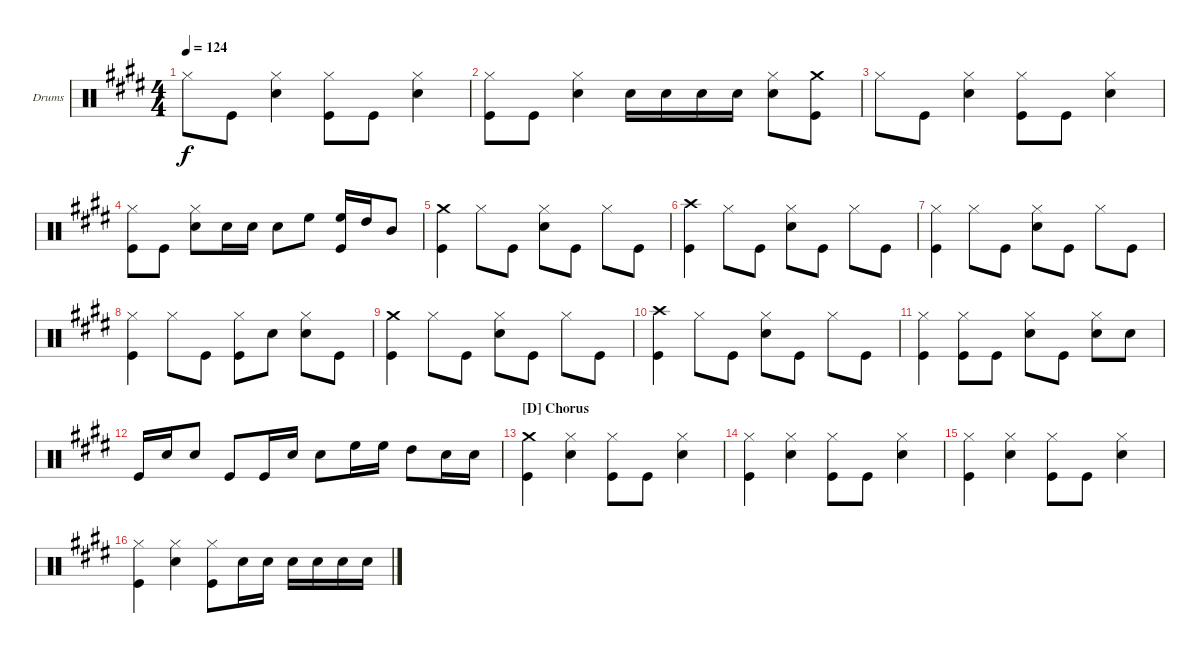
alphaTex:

\defaultSystemsLayout 4
\bracketExtendMode groupsimilarinstruments
\firstSystemTrackNameOrientation horizontal
\otherSystemsTrackNameOrientation horizontal
\track ("Drumkit" "Drums") {instrument percussion}
\staff {score}
\articulation defaults
\ts (4 4)
\tempo 124
\clef neutral
\ks e "Hi-Hat (closed)".8{dy f} "Kick (hit)".8
("Hi-Hat (closed)" "Snare (hit) 2").4 ("Hi-Hat (closed)" "Kick (hit)").8 "Kick (hit)".8 ("Hi-Hat (closed)" "Snare (hit) 2").4 |
("Hi-Hat (closed)" "Kick (hit)").8 "Kick (hit)".8 ("Hi-Hat (closed)" "Snare (hit) 2").4 "Snare (hit) 2".16 "Snare (hit) 2".16 "Snare (hit) 2".16 "Snare (hit) 2".16 ("Hi-Hat (closed)" "Snare (hit) 2").8 ("Crash medium (hit)" "Kick (hit)").8 |
"Hi-Hat (closed)".8 "Kick (hit)".8 ("Hi-Hat (closed)" "Snare (hit) 2").4 ("Hi-Hat (closed)" "Kick (hit)").8 "Kick (hit)".8 ("Hi-Hat (closed)" "Snare (hit) 2").4 |
("Hi-Hat (closed)" "Kick (hit)").8 "Kick (hit)".8 ("Hi-Hat (closed)" "Snare (hit) 2").8 "Snare (hit) 2".16 "Snare (hit) 2".16 "Snare (hit) 2".8 "High Floor Tom (hit)".8 ("High Floor Tom (hit)" "Kick (hit)").16 "High Tom (hit)".16 "Mid Tom (hit)".8 |
("Crash medium (hit)" "Kick (hit)").4 "Hi-Hat (closed)".8 "Kick (hit)".8 ("Hi-Hat (closed)" "Snare (hit) 2").8 "Kick (hit)".8 "Hi-Hat (closed)".8 "Kick (hit)".8 |
("Crash high (hit)" "Kick (hit)").4 "Hi-Hat (closed)".8 "Kick (hit)".8 ("Hi-Hat (closed)" "Snare (hit) 2").8 "Kick (hit)".8 "Hi-Hat (closed)".8 "Kick (hit)".8 |
("Hi-Hat (closed)" "Kick (hit)").4 "Hi-Hat (closed)".8 "Kick (hit)".8 ("Hi-Hat (closed)" "Snare (hit) 2").8 "Kick (hit)".8 "Hi-Hat (closed)".8 "Kick (hit)".8 |
("Hi-Hat (closed)" "Kick (hit)").4 "Hi-Hat (closed)".8 "Kick (hit)".8 ("Hi-Hat (closed)" "Kick (hit)").8 "Snare (hit) 2".8 ("Hi-Hat (closed)" "Snare (hit) 2").8 "Kick (hit)".8 |
("Crash medium (hit)" "Kick (hit)").4 "Hi-Hat (closed)".8 "Kick (hit)".8 ("Hi-Hat (closed)" "Snare (hit) 2").8 "Kick (hit)".8 "Hi-Hat (closed)".8 "Kick (hit)".8 |
("Crash high (hit)" "Kick (hit)").4 "Hi-Hat (closed)".8 "Kick (hit)".8 ("Hi-Hat (closed)" "Snare (hit) 2").8 "Kick (hit)".8 "Hi-Hat (closed)".8 "Kick (hit)".8 |
("Hi-Hat (closed)" "Kick (hit)").4 ("Hi-Hat (closed)" "Kick (hit)").8 "Kick (hit)".8 ("Hi-Hat (closed)" "Snare (hit) 2").8 "Kick (hit)".8 ("Hi-Hat (closed)" "Snare (hit) 2").8 "Snare (hit) 2".8 |
"Kick (hit)".16 "Snare (hit) 2".16 "Snare (hit) 2".8 "Kick (hit)".8 "Kick (hit)".16 "Snare (hit) 2".16 "Snare (hit) 2".8 "High Floor Tom (hit)".16 "High Floor Tom (hit)".16 "High Tom (hit)".8 "Snare (hit) 2".16 "Snare (hit) 2".16 |
\section ("D" "Chorus")
("Crash medium (hit)" "Kick (hit)").4 ("Hi-Hat (closed)" "Snare (hit) 2").4 ("Hi-Hat (closed)" "Kick (hit)").8 "Kick (hit)".8 ("Hi-Hat (closed)" "Snare (hit) 2").4 |
("Hi-Hat (closed)" "Kick (hit)").4 ("Hi-Hat (closed)" "Snare (hit) 2").4 ("Hi-Hat (closed)" "Kick (hit)").8 "Kick (hit)".8 ("Hi-Hat (closed)" "Snare (hit) 2").4 |
("Hi-Hat (closed)" "Kick (hit)").4 ("Hi-Hat (closed)" "Snare (hit) 2").4 ("Hi-Hat (closed)" "Kick (hit)").8 "Kick (hit)".8 ("Hi-Hat (closed)" "Snare (hit) 2").4 |
("Hi-Hat (closed)" "Kick (hit)").4 ("Hi-Hat (closed)" "Snare (hit) 2").4 ("Hi-Hat (closed)" "Kick (hit)").8 "Snare (hit) 2".16 "Snare (hit) 2".16 "Snare (hit) 2".16 "Snare (hit) 2".16 "Snare (hit) 2".16 "Snare (hit) 2".16
